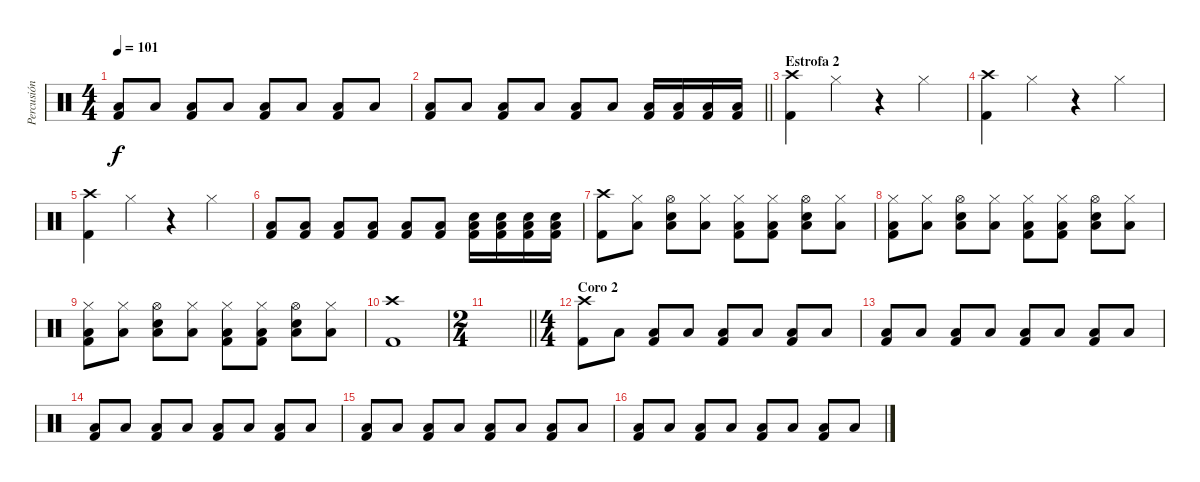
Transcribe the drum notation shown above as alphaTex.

\track ("Percusión" "Percusión") {instrument percussion}
\staff {score}
\articulation defaults
\ts (4 4)
\tempo 101
\clef neutral
\ks c
("Low Floor Tom (hit)" "Kick (hit) 2").8{dy f} "Low Floor Tom (hit)".8 ("Low Floor Tom (hit)" "Kick (hit) 2").8 "Low Floor Tom (hit)".8 ("Low Floor Tom (hit)" "Kick (hit) 2").8 "Low Floor Tom (hit)".8 ("Low Floor Tom (hit)" "Kick (hit) 2").8 "Low Floor Tom (hit)".8 |
\barLineRight lightlight
("Low Floor Tom (hit)" "Kick (hit) 2").8 "Low Floor Tom (hit)".8 ("Low Floor Tom (hit)" "Kick (hit) 2").8 "Low Floor Tom (hit)".8 ("Low Floor Tom (hit)" "Kick (hit) 2").8 "Low Floor Tom (hit)".8 ("Low Floor Tom (hit)" "Kick (hit) 2").16 ("Low Floor Tom (hit)" "Kick (hit) 2").16 ("Low Floor Tom (hit)" "Kick (hit) 2").16 ("Low Floor Tom (hit)" "Kick (hit) 2").16 |
\section ("" "Estrofa 2")
("Kick (hit) 2" "Crash high (hit)").4 "Hi-Hat (closed)".4 r.4 "Hi-Hat (closed)".4 |
("Kick (hit) 2" "Crash high (hit)").4 "Hi-Hat (closed)".4 r.4 "Hi-Hat (closed)".4 |
("Kick (hit) 2" "Crash high (hit)").4 "Hi-Hat (closed)".4 r.4 "Hi-Hat (closed)".4 |
("Low Floor Tom (hit)" "Kick (hit) 2").8 ("Low Floor Tom (hit)" "Kick (hit) 2").8 ("Low Floor Tom (hit)" "Kick (hit) 2").8 ("Low Floor Tom (hit)" "Kick (hit) 2").8 ("Low Floor Tom (hit)" "Kick (hit) 2").8 ("Low Floor Tom (hit)" "Kick (hit) 2").8 ("Snare (hit) 2" "Low Floor Tom (hit)" "Kick (hit) 2").16 ("Snare (hit) 2" "Low Floor Tom (hit)" "Kick (hit) 2").16 ("Snare (hit) 2" "Low Floor Tom (hit)" "Kick (hit) 2").16 ("Snare (hit) 2" "Low Floor Tom (hit)" "Kick (hit) 2").16 |
("Kick (hit) 2" "Crash high (hit)").8 ("Low Floor Tom (hit)" "Hi-Hat (closed)").8 ("Low Floor Tom (hit)" "Hi-Hat (open)" "Snare (hit) 2").8 ("Low Floor Tom (hit)" "Hi-Hat (closed)").8 ("Low Floor Tom (hit)" "Hi-Hat (closed)" "Kick (hit) 2").8 ("Low Floor Tom (hit)" "Hi-Hat (closed)" "Kick (hit) 2").8 ("Low Floor Tom (hit)" "Hi-Hat (open)" "Snare (hit) 2").8 ("Low Floor Tom (hit)" "Hi-Hat (closed)").8 |
("Low Floor Tom (hit)" "Hi-Hat (closed)" "Kick (hit) 2").8 ("Low Floor Tom (hit)" "Hi-Hat (closed)").8 ("Low Floor Tom (hit)" "Hi-Hat (open)" "Snare (hit) 2").8 ("Low Floor Tom (hit)" "Hi-Hat (closed)").8 ("Low Floor Tom (hit)" "Hi-Hat (closed)" "Kick (hit) 2").8 ("Low Floor Tom (hit)" "Hi-Hat (closed)" "Kick (hit) 2").8 ("Low Floor Tom (hit)" "Hi-Hat (open)" "Snare (hit) 2").8 ("Low Floor Tom (hit)" "Hi-Hat (closed)").8 |
("Low Floor Tom (hit)" "Hi-Hat (closed)" "Kick (hit) 2").8 ("Low Floor Tom (hit)" "Hi-Hat (closed)").8 ("Low Floor Tom (hit)" "Hi-Hat (open)" "Snare (hit) 2").8 ("Low Floor Tom (hit)" "Hi-Hat (closed)").8 ("Low Floor Tom (hit)" "Hi-Hat (closed)" "Kick (hit) 2").8 ("Low Floor Tom (hit)" "Hi-Hat (closed)" "Kick (hit) 2").8 ("Low Floor Tom (hit)" "Hi-Hat (open)" "Snare (hit) 2").8 ("Low Floor Tom (hit)" "Hi-Hat (closed)").8 |
("Kick (hit) 2" "Crash high (hit)").1 |
\ts (2 4)
\barLineRight lightlight
|
\ts (4 4)
\section ("" "Coro 2")
("Kick (hit) 2" "Crash high (hit)").8 "Low Floor Tom (hit)".8 ("Low Floor Tom (hit)" "Kick (hit) 2").8 "Low Floor Tom (hit)".8 ("Low Floor Tom (hit)" "Kick (hit) 2").8 "Low Floor Tom (hit)".8 ("Low Floor Tom (hit)" "Kick (hit) 2").8 "Low Floor Tom (hit)".8 |
("Low Floor Tom (hit)" "Kick (hit) 2").8 "Low Floor Tom (hit)".8 ("Low Floor Tom (hit)" "Kick (hit) 2").8 "Low Floor Tom (hit)".8 ("Low Floor Tom (hit)" "Kick (hit) 2").8 "Low Floor Tom (hit)".8 ("Low Floor Tom (hit)" "Kick (hit) 2").8 "Low Floor Tom (hit)".8 |
("Low Floor Tom (hit)" "Kick (hit) 2").8 "Low Floor Tom (hit)".8 ("Low Floor Tom (hit)" "Kick (hit) 2").8 "Low Floor Tom (hit)".8 ("Low Floor Tom (hit)" "Kick (hit) 2").8 "Low Floor Tom (hit)".8 ("Low Floor Tom (hit)" "Kick (hit) 2").8 "Low Floor Tom (hit)".8 |
("Low Floor Tom (hit)" "Kick (hit) 2").8 "Low Floor Tom (hit)".8 ("Low Floor Tom (hit)" "Kick (hit) 2").8 "Low Floor Tom (hit)".8 ("Low Floor Tom (hit)" "Kick (hit) 2").8 "Low Floor Tom (hit)".8 ("Low Floor Tom (hit)" "Kick (hit) 2").8 "Low Floor Tom (hit)".8 |
("Low Floor Tom (hit)" "Kick (hit) 2").8 "Low Floor Tom (hit)".8 ("Low Floor Tom (hit)" "Kick (hit) 2").8 "Low Floor Tom (hit)".8 ("Low Floor Tom (hit)" "Kick (hit) 2").8 "Low Floor Tom (hit)".8 ("Low Floor Tom (hit)" "Kick (hit) 2").8 "Low Floor Tom (hit)".8
